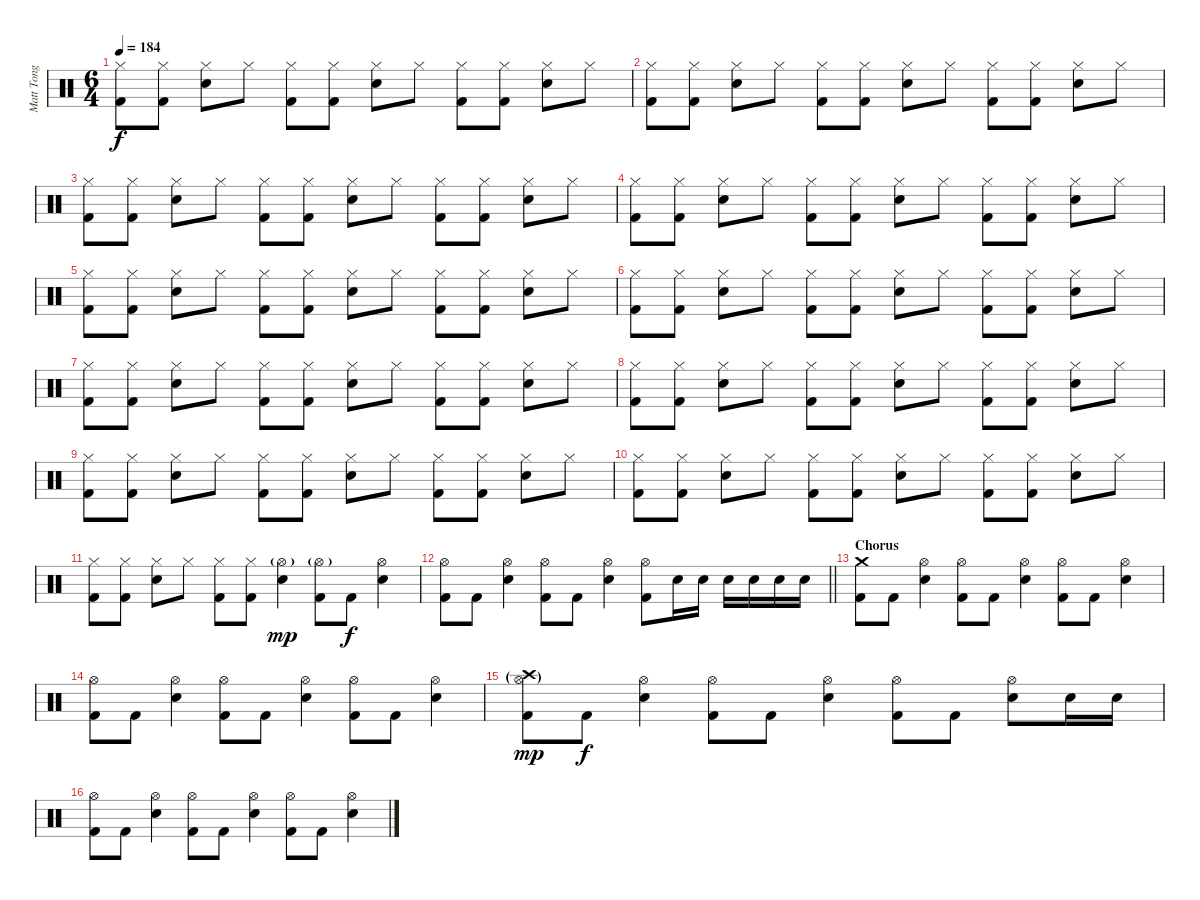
\track ("Matt Tong" "Matt Tong") {instrument percussion}
\staff {score}
\articulation defaults
\ts (6 4)
\tempo 184
\clef neutral
\ks c
("Hi-Hat (closed)" "Kick (hit) 2").8{dy f} ("Hi-Hat (closed)" "Kick (hit) 2").8 ("Hi-Hat (closed)" "Electric Snare (hit)").8 "Hi-Hat (closed)".8 ("Hi-Hat (closed)" "Kick (hit) 2").8 ("Hi-Hat (closed)" "Kick (hit) 2").8 ("Hi-Hat (closed)" "Electric Snare (hit)").8 "Hi-Hat (closed)".8 ("Hi-Hat (closed)" "Kick (hit) 2").8 ("Hi-Hat (closed)" "Kick (hit) 2").8 ("Hi-Hat (closed)" "Electric Snare (hit)").8 "Hi-Hat (closed)".8 |
("Hi-Hat (closed)" "Kick (hit) 2").8 ("Hi-Hat (closed)" "Kick (hit) 2").8 ("Hi-Hat (closed)" "Electric Snare (hit)").8 "Hi-Hat (closed)".8 ("Hi-Hat (closed)" "Kick (hit) 2").8 ("Hi-Hat (closed)" "Kick (hit) 2").8 ("Hi-Hat (closed)" "Electric Snare (hit)").8 "Hi-Hat (closed)".8 ("Hi-Hat (closed)" "Kick (hit) 2").8 ("Hi-Hat (closed)" "Kick (hit) 2").8 ("Hi-Hat (closed)" "Electric Snare (hit)").8 "Hi-Hat (closed)".8 |
("Hi-Hat (closed)" "Kick (hit) 2").8 ("Hi-Hat (closed)" "Kick (hit) 2").8 ("Hi-Hat (closed)" "Electric Snare (hit)").8 "Hi-Hat (closed)".8 ("Hi-Hat (closed)" "Kick (hit) 2").8 ("Hi-Hat (closed)" "Kick (hit) 2").8 ("Hi-Hat (closed)" "Electric Snare (hit)").8 "Hi-Hat (closed)".8 ("Hi-Hat (closed)" "Kick (hit) 2").8 ("Hi-Hat (closed)" "Kick (hit) 2").8 ("Hi-Hat (closed)" "Electric Snare (hit)").8 "Hi-Hat (closed)".8 |
("Hi-Hat (closed)" "Kick (hit) 2").8 ("Hi-Hat (closed)" "Kick (hit) 2").8 ("Hi-Hat (closed)" "Electric Snare (hit)").8 "Hi-Hat (closed)".8 ("Hi-Hat (closed)" "Kick (hit) 2").8 ("Hi-Hat (closed)" "Kick (hit) 2").8 ("Hi-Hat (closed)" "Electric Snare (hit)").8 "Hi-Hat (closed)".8 ("Hi-Hat (closed)" "Kick (hit) 2").8 ("Hi-Hat (closed)" "Kick (hit) 2").8 ("Hi-Hat (closed)" "Electric Snare (hit)").8 "Hi-Hat (closed)".8 |
("Hi-Hat (closed)" "Kick (hit) 2").8 ("Hi-Hat (closed)" "Kick (hit) 2").8 ("Hi-Hat (closed)" "Electric Snare (hit)").8 "Hi-Hat (closed)".8 ("Hi-Hat (closed)" "Kick (hit) 2").8 ("Hi-Hat (closed)" "Kick (hit) 2").8 ("Hi-Hat (closed)" "Electric Snare (hit)").8 "Hi-Hat (closed)".8 ("Hi-Hat (closed)" "Kick (hit) 2").8 ("Hi-Hat (closed)" "Kick (hit) 2").8 ("Hi-Hat (closed)" "Electric Snare (hit)").8 "Hi-Hat (closed)".8 |
("Hi-Hat (closed)" "Kick (hit) 2").8 ("Hi-Hat (closed)" "Kick (hit) 2").8 ("Hi-Hat (closed)" "Electric Snare (hit)").8 "Hi-Hat (closed)".8 ("Hi-Hat (closed)" "Kick (hit) 2").8 ("Hi-Hat (closed)" "Kick (hit) 2").8 ("Hi-Hat (closed)" "Electric Snare (hit)").8 "Hi-Hat (closed)".8 ("Hi-Hat (closed)" "Kick (hit) 2").8 ("Hi-Hat (closed)" "Kick (hit) 2").8 ("Hi-Hat (closed)" "Electric Snare (hit)").8 "Hi-Hat (closed)".8 |
("Hi-Hat (closed)" "Kick (hit) 2").8 ("Hi-Hat (closed)" "Kick (hit) 2").8 ("Hi-Hat (closed)" "Electric Snare (hit)").8 "Hi-Hat (closed)".8 ("Hi-Hat (closed)" "Kick (hit) 2").8 ("Hi-Hat (closed)" "Kick (hit) 2").8 ("Hi-Hat (closed)" "Electric Snare (hit)").8 "Hi-Hat (closed)".8 ("Hi-Hat (closed)" "Kick (hit) 2").8 ("Hi-Hat (closed)" "Kick (hit) 2").8 ("Hi-Hat (closed)" "Electric Snare (hit)").8 "Hi-Hat (closed)".8 |
("Hi-Hat (closed)" "Kick (hit) 2").8 ("Hi-Hat (closed)" "Kick (hit) 2").8 ("Hi-Hat (closed)" "Electric Snare (hit)").8 "Hi-Hat (closed)".8 ("Hi-Hat (closed)" "Kick (hit) 2").8 ("Hi-Hat (closed)" "Kick (hit) 2").8 ("Hi-Hat (closed)" "Electric Snare (hit)").8 "Hi-Hat (closed)".8 ("Hi-Hat (closed)" "Kick (hit) 2").8 ("Hi-Hat (closed)" "Kick (hit) 2").8 ("Hi-Hat (closed)" "Electric Snare (hit)").8 "Hi-Hat (closed)".8 |
("Hi-Hat (closed)" "Kick (hit) 2").8 ("Hi-Hat (closed)" "Kick (hit) 2").8 ("Hi-Hat (closed)" "Electric Snare (hit)").8 "Hi-Hat (closed)".8 ("Hi-Hat (closed)" "Kick (hit) 2").8 ("Hi-Hat (closed)" "Kick (hit) 2").8 ("Hi-Hat (closed)" "Electric Snare (hit)").8 "Hi-Hat (closed)".8 ("Hi-Hat (closed)" "Kick (hit) 2").8 ("Hi-Hat (closed)" "Kick (hit) 2").8 ("Hi-Hat (closed)" "Electric Snare (hit)").8 "Hi-Hat (closed)".8 |
("Hi-Hat (closed)" "Kick (hit) 2").8 ("Hi-Hat (closed)" "Kick (hit) 2").8 ("Hi-Hat (closed)" "Electric Snare (hit)").8 "Hi-Hat (closed)".8 ("Hi-Hat (closed)" "Kick (hit) 2").8 ("Hi-Hat (closed)" "Kick (hit) 2").8 ("Hi-Hat (closed)" "Electric Snare (hit)").8 "Hi-Hat (closed)".8 ("Hi-Hat (closed)" "Kick (hit) 2").8 ("Hi-Hat (closed)" "Kick (hit) 2").8 ("Hi-Hat (closed)" "Electric Snare (hit)").8 "Hi-Hat (closed)".8 |
("Hi-Hat (closed)" "Kick (hit) 2").8 ("Hi-Hat (closed)" "Kick (hit) 2").8 ("Hi-Hat (closed)" "Electric Snare (hit)").8 "Hi-Hat (closed)".8 ("Hi-Hat (closed)" "Kick (hit) 2").8 ("Hi-Hat (closed)" "Kick (hit) 2").8 ("Hi-Hat (open)"{g} "Electric Snare (hit)").4{dy mp} ("Hi-Hat (open)"{g} "Kick (hit) 2").8 "Kick (hit) 2".8{dy f} ("Hi-Hat (open)" "Electric Snare (hit)").4 |
\barLineRight lightlight
("Hi-Hat (open)" "Kick (hit) 2").8 "Kick (hit) 2".8 ("Hi-Hat (open)" "Electric Snare (hit)").4 ("Hi-Hat (open)" "Kick (hit) 2").8 "Kick (hit) 2".8 ("Hi-Hat (open)" "Electric Snare (hit)").4 ("Hi-Hat (open)" "Kick (hit) 2").8 "Electric Snare (hit)".16 "Electric Snare (hit)".16 "Electric Snare (hit)".16 "Electric Snare (hit)".16 "Electric Snare (hit)".16 "Electric Snare (hit)".16 |
\section ("" "Chorus")
("Crash medium (hit)" "Kick (hit) 2").8 "Kick (hit) 2".8 ("Hi-Hat (open)" "Electric Snare (hit)").4 ("Hi-Hat (open)" "Kick (hit) 2").8 "Kick (hit) 2".8 ("Hi-Hat (open)" "Electric Snare (hit)").4 ("Hi-Hat (open)" "Kick (hit) 2").8 "Kick (hit) 2".8 ("Hi-Hat (open)" "Electric Snare (hit)").4 |
("Hi-Hat (open)" "Kick (hit) 2").8 "Kick (hit) 2".8 ("Hi-Hat (open)" "Electric Snare (hit)").4 ("Hi-Hat (open)" "Kick (hit) 2").8 "Kick (hit) 2".8 ("Hi-Hat (open)" "Electric Snare (hit)").4 ("Hi-Hat (open)" "Kick (hit) 2").8 "Kick (hit) 2".8 ("Hi-Hat (open)" "Electric Snare (hit)").4 |
("Crash high (hit)"{g} "Hi-Hat (open)"{g} "Kick (hit) 2").8{dy mp} "Kick (hit) 2".8{dy f} ("Hi-Hat (open)" "Electric Snare (hit)").4 ("Hi-Hat (open)" "Kick (hit) 2").8 "Kick (hit) 2".8 ("Hi-Hat (open)" "Electric Snare (hit)").4 ("Hi-Hat (open)" "Kick (hit) 2").8 "Kick (hit) 2".8 ("Hi-Hat (open)" "Electric Snare (hit)").8 "Electric Snare (hit)".16 "Electric Snare (hit)".16 |
("Hi-Hat (open)" "Kick (hit) 2").8 "Kick (hit) 2".8 ("Hi-Hat (open)" "Electric Snare (hit)").4 ("Hi-Hat (open)" "Kick (hit) 2").8 "Kick (hit) 2".8 ("Hi-Hat (open)" "Electric Snare (hit)").4 ("Hi-Hat (open)" "Kick (hit) 2").8 "Kick (hit) 2".8 ("Hi-Hat (open)" "Electric Snare (hit)").4
